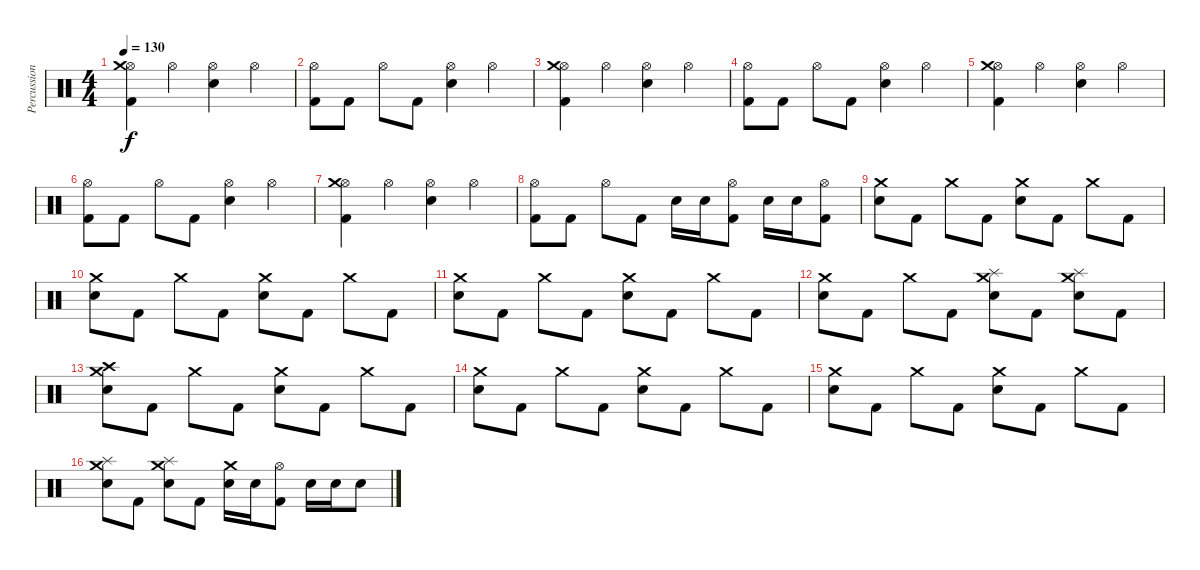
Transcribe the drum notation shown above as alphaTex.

\track ("Percussion" "Percussion") {instrument percussion}
\staff {score}
\articulation defaults
\ts (4 4)
\tempo 130
\clef neutral
\ks c
("Hi-Hat (open)" "Crash medium (hit)" "Kick (hit) 2").4{dy f} "Hi-Hat (open)".4 ("Hi-Hat (open)" "Electric Snare (hit)").4 "Hi-Hat (open)".4 |
("Hi-Hat (open)" "Kick (hit) 2").8 "Kick (hit) 2".8 "Hi-Hat (open)".8 "Kick (hit) 2".8 ("Hi-Hat (open)" "Electric Snare (hit)").4 "Hi-Hat (open)".4 |
("Hi-Hat (open)" "Crash medium (hit)" "Kick (hit) 2").4 "Hi-Hat (open)".4 ("Hi-Hat (open)" "Electric Snare (hit)").4 "Hi-Hat (open)".4 |
("Hi-Hat (open)" "Kick (hit) 2").8 "Kick (hit) 2".8 "Hi-Hat (open)".8 "Kick (hit) 2".8 ("Hi-Hat (open)" "Electric Snare (hit)").4 "Hi-Hat (open)".4 |
("Hi-Hat (open)" "Crash medium (hit)" "Kick (hit) 2").4 "Hi-Hat (open)".4 ("Hi-Hat (open)" "Electric Snare (hit)").4 "Hi-Hat (open)".4 |
("Hi-Hat (open)" "Kick (hit) 2").8 "Kick (hit) 2".8 "Hi-Hat (open)".8 "Kick (hit) 2".8 ("Hi-Hat (open)" "Electric Snare (hit)").4 "Hi-Hat (open)".4 |
("Hi-Hat (open)" "Crash medium (hit)" "Kick (hit) 2").4 "Hi-Hat (open)".4 ("Hi-Hat (open)" "Electric Snare (hit)").4 "Hi-Hat (open)".4 |
("Hi-Hat (open)" "Kick (hit) 2").8 "Kick (hit) 2".8 "Hi-Hat (open)".8 "Kick (hit) 2".8 "Electric Snare (hit)".16 "Electric Snare (hit)".16 ("Hi-Hat (open)" "Kick (hit) 2").8 "Electric Snare (hit)".16 "Electric Snare (hit)".16 ("Hi-Hat (open)" "Kick (hit) 2").8 |
("Crash medium (hit)" "Electric Snare (hit)").8 "Kick (hit) 2".8 "Crash medium (hit)".8 "Kick (hit) 2".8 ("Crash medium (hit)" "Electric Snare (hit)").8 "Kick (hit) 2".8 "Crash medium (hit)".8 "Kick (hit) 2".8 |
("Crash medium (hit)" "Electric Snare (hit)").8 "Kick (hit) 2".8 "Crash medium (hit)".8 "Kick (hit) 2".8 ("Crash medium (hit)" "Electric Snare (hit)").8 "Kick (hit) 2".8 "Crash medium (hit)".8 "Kick (hit) 2".8 |
("Crash medium (hit)" "Electric Snare (hit)").8 "Kick (hit) 2".8 "Crash medium (hit)".8 "Kick (hit) 2".8 ("Crash medium (hit)" "Electric Snare (hit)").8 "Kick (hit) 2".8 "Crash medium (hit)".8 "Kick (hit) 2".8 |
("Crash medium (hit)" "Electric Snare (hit)").8 "Kick (hit) 2".8 "Crash medium (hit)".8 "Kick (hit) 2".8 ("Crash medium (hit)" "Splash (hit)" "Electric Snare (hit)").8 "Kick (hit) 2".8 ("Crash medium (hit)" "Splash (hit)" "Electric Snare (hit)").8 "Kick (hit) 2".8 |
("Crash medium (hit)" "Crash high (hit)" "Electric Snare (hit)").8 "Kick (hit) 2".8 "Crash medium (hit)".8 "Kick (hit) 2".8 ("Crash medium (hit)" "Electric Snare (hit)").8 "Kick (hit) 2".8 "Crash medium (hit)".8 "Kick (hit) 2".8 |
("Crash medium (hit)" "Electric Snare (hit)").8 "Kick (hit) 2".8 "Crash medium (hit)".8 "Kick (hit) 2".8 ("Crash medium (hit)" "Electric Snare (hit)").8 "Kick (hit) 2".8 "Crash medium (hit)".8 "Kick (hit) 2".8 |
("Crash medium (hit)" "Electric Snare (hit)").8 "Kick (hit) 2".8 "Crash medium (hit)".8 "Kick (hit) 2".8 ("Crash medium (hit)" "Electric Snare (hit)").8 "Kick (hit) 2".8 "Crash medium (hit)".8 "Kick (hit) 2".8 |
("Crash medium (hit)" "Splash (hit)" "Electric Snare (hit)").8 "Kick (hit) 2".8 ("Crash medium (hit)" "Splash (hit)" "Electric Snare (hit)").8 "Kick (hit) 2".8 ("Crash medium (hit)" "Electric Snare (hit)").16 "Electric Snare (hit)".16 ("Hi-Hat (open)" "Kick (hit) 2").8 "Electric Snare (hit)".16 "Electric Snare (hit)".16 "Electric Snare (hit)".8
